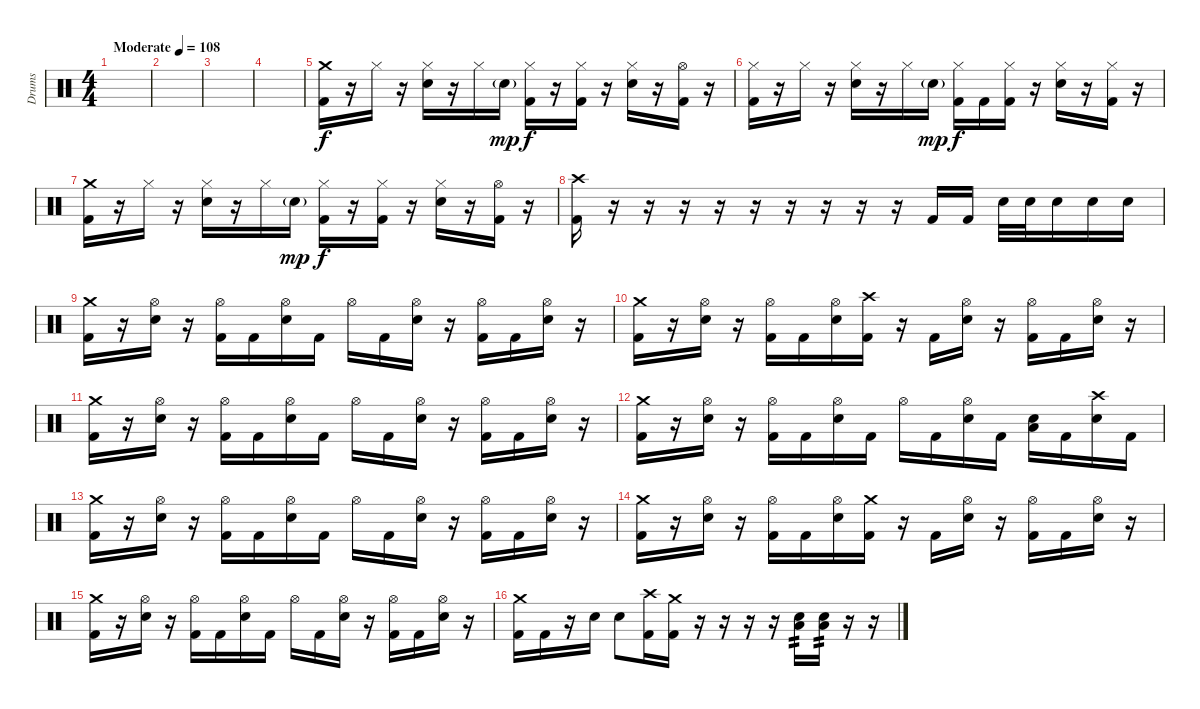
\track ("Drums" "Drums") {instrument percussion}
\staff {score}
\articulation defaults
\ts (4 4)
\tempo (108 "Moderate")
\clef neutral
\ks c
|
|
|
|
("Crash medium (hit)" "Kick (hit) 2").16 r.16 "Hi-Hat (closed)".16 r.16 ("Hi-Hat (closed)" "Electric Snare (hit)").16 r.16 "Hi-Hat (closed)".16 "Electric Snare (hit)"{g}.16{dy mp} ("Hi-Hat (closed)" "Kick (hit) 2").16{dy f} r.16 ("Hi-Hat (closed)" "Kick (hit) 2").16 r.16 ("Hi-Hat (closed)" "Electric Snare (hit)").16 r.16 ("Hi-Hat (open)" "Kick (hit) 2").16 r.16 |
("Hi-Hat (closed)" "Kick (hit) 2").16 r.16 "Hi-Hat (closed)".16 r.16 ("Hi-Hat (closed)" "Electric Snare (hit)").16 r.16 "Hi-Hat (closed)".16 "Electric Snare (hit)"{g}.16{dy mp} ("Hi-Hat (closed)" "Kick (hit) 2").16{dy f} "Kick (hit) 2".16 ("Hi-Hat (closed)" "Kick (hit) 2").16 r.16 ("Hi-Hat (closed)" "Electric Snare (hit)").16 r.16 ("Hi-Hat (closed)" "Kick (hit) 2").16 r.16 |
("Crash medium (hit)" "Kick (hit) 2").16 r.16 "Hi-Hat (closed)".16 r.16 ("Hi-Hat (closed)" "Electric Snare (hit)").16 r.16 "Hi-Hat (closed)".16 "Electric Snare (hit)"{g}.16{dy mp} ("Hi-Hat (closed)" "Kick (hit) 2").16{dy f} r.16 ("Hi-Hat (closed)" "Kick (hit) 2").16 r.16 ("Hi-Hat (closed)" "Electric Snare (hit)").16 r.16 ("Hi-Hat (open)" "Kick (hit) 2").16 r.16 |
("Crash high (hit)" "Kick (hit) 2").16 r.16 r.16 r.16 r.16 r.16 r.16 r.16 r.16 r.16 "Kick (hit) 2".16 "Kick (hit) 2".16 "Electric Snare (hit)".32 "Electric Snare (hit)".32 "Electric Snare (hit)".16 "Electric Snare (hit)".16 "Electric Snare (hit)".16 |
("Crash medium (hit)" "Kick (hit) 2").16 r.16 ("Hi-Hat (open)" "Electric Snare (hit)").16 r.16 ("Hi-Hat (open)" "Kick (hit) 2").16 "Kick (hit) 2".16 ("Hi-Hat (open)" "Electric Snare (hit)").16 "Kick (hit) 2".16 "Hi-Hat (open)".16 "Kick (hit) 2".16 ("Hi-Hat (open)" "Electric Snare (hit)").16 r.16 ("Hi-Hat (open)" "Kick (hit) 2").16 "Kick (hit) 2".16 ("Hi-Hat (open)" "Electric Snare (hit)").16 r.16 |
("Crash medium (hit)" "Kick (hit) 2").16 r.16 ("Hi-Hat (open)" "Electric Snare (hit)").16 r.16 ("Hi-Hat (open)" "Kick (hit) 2").16 "Kick (hit) 2".16 ("Hi-Hat (open)" "Electric Snare (hit)").16 ("Crash high (hit)" "Kick (hit) 2").16 r.16 "Kick (hit) 2".16 ("Hi-Hat (open)" "Electric Snare (hit)").16 r.16 ("Hi-Hat (open)" "Kick (hit) 2").16 "Kick (hit) 2".16 ("Hi-Hat (open)" "Electric Snare (hit)").16 r.16 |
("Crash medium (hit)" "Kick (hit) 2").16 r.16 ("Hi-Hat (open)" "Electric Snare (hit)").16 r.16 ("Hi-Hat (open)" "Kick (hit) 2").16 "Kick (hit) 2".16 ("Hi-Hat (open)" "Electric Snare (hit)").16 "Kick (hit) 2".16 "Hi-Hat (open)".16 "Kick (hit) 2".16 ("Hi-Hat (open)" "Electric Snare (hit)").16 r.16 ("Hi-Hat (open)" "Kick (hit) 2").16 "Kick (hit) 2".16 ("Hi-Hat (open)" "Electric Snare (hit)").16 r.16 |
("Crash medium (hit)" "Kick (hit) 2").16 r.16 ("Hi-Hat (open)" "Electric Snare (hit)").16 r.16 ("Hi-Hat (open)" "Kick (hit) 2").16 "Kick (hit) 2".16 ("Hi-Hat (open)" "Electric Snare (hit)").16 "Kick (hit) 2".16 "Hi-Hat (open)".16 "Kick (hit) 2".16 ("Hi-Hat (open)" "Electric Snare (hit)").16 "Kick (hit) 2".16 ("Low Floor Tom (hit)" "Electric Snare (hit)").16 "Kick (hit) 2".16 ("Crash high (hit)" "Electric Snare (hit)").16 "Kick (hit) 2".16 |
("Crash medium (hit)" "Kick (hit) 2").16 r.16 ("Hi-Hat (open)" "Electric Snare (hit)").16 r.16 ("Hi-Hat (open)" "Kick (hit) 2").16 "Kick (hit) 2".16 ("Hi-Hat (open)" "Electric Snare (hit)").16 "Kick (hit) 2".16 "Hi-Hat (open)".16 "Kick (hit) 2".16 ("Hi-Hat (open)" "Electric Snare (hit)").16 r.16 ("Hi-Hat (open)" "Kick (hit) 2").16 "Kick (hit) 2".16 ("Hi-Hat (open)" "Electric Snare (hit)").16 r.16 |
("Crash medium (hit)" "Kick (hit) 2").16 r.16 ("Hi-Hat (open)" "Electric Snare (hit)").16 r.16 ("Hi-Hat (open)" "Kick (hit) 2").16 "Kick (hit) 2".16 ("Hi-Hat (open)" "Electric Snare (hit)").16 ("Crash medium (hit)" "Kick (hit) 2").16 r.16 "Kick (hit) 2".16 ("Hi-Hat (open)" "Electric Snare (hit)").16 r.16 ("Hi-Hat (open)" "Kick (hit) 2").16 "Kick (hit) 2".16 ("Hi-Hat (open)" "Electric Snare (hit)").16 r.16 |
("Crash medium (hit)" "Kick (hit) 2").16 r.16 ("Hi-Hat (open)" "Electric Snare (hit)").16 r.16 ("Hi-Hat (open)" "Kick (hit) 2").16 "Kick (hit) 2".16 ("Hi-Hat (open)" "Electric Snare (hit)").16 "Kick (hit) 2".16 "Hi-Hat (open)".16 "Kick (hit) 2".16 ("Hi-Hat (open)" "Electric Snare (hit)").16 r.16 ("Hi-Hat (open)" "Kick (hit) 2").16 "Kick (hit) 2".16 ("Hi-Hat (open)" "Electric Snare (hit)").16 r.16 |
("Crash medium (hit)" "Kick (hit) 2").16 "Kick (hit) 2".16 r.16 "Electric Snare (hit)".16 "Electric Snare (hit)".8 ("Crash high (hit)" "Kick (hit) 2").16 ("Crash medium (hit)" "Kick (hit) 2").16 r.16 r.16 r.16 r.16 ("Low Floor Tom (hit)" "Electric Snare (hit)").16{tp 2} ("Low Floor Tom (hit)" "Electric Snare (hit)").16{tp 2} r.16 r.16
